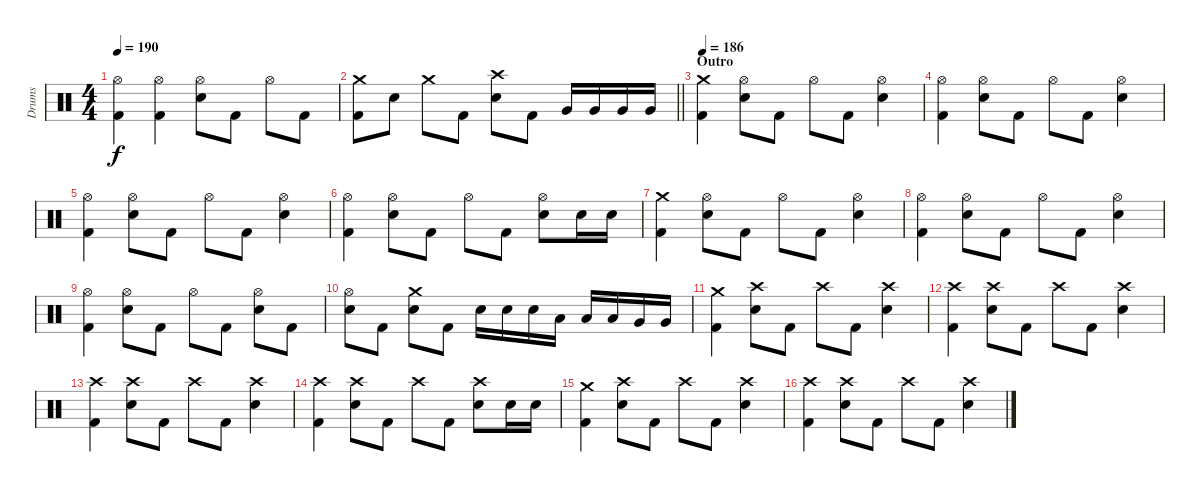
\track ("Drums" "Drums") {instrument percussion}
\staff {score}
\articulation defaults
\ts (4 4)
\tempo 190
\clef neutral
\ks c
("Hi-Hat (open)" "Kick (hit) 2").4{dy f} ("Hi-Hat (open)" "Kick (hit) 2").4 ("Hi-Hat (open)" "Electric Snare (hit)").8 "Kick (hit) 2".8 "Hi-Hat (open)".8 "Kick (hit) 2".8 |
\barLineRight lightlight
("Crash medium (hit)" "Kick (hit) 2").8 "Electric Snare (hit)".8 "Crash medium (hit)".8 "Kick (hit) 2".8 ("Crash high (hit)" "Electric Snare (hit)").8 "Kick (hit) 2".8 "Very Low Tom (hit)".16 "Very Low Tom (hit)".16 "Very Low Tom (hit)".16 "Very Low Tom (hit)".16 |
\section ("" "Outro")
\tempo 186
("Crash medium (hit)" "Kick (hit) 2").4 ("Hi-Hat (open)" "Electric Snare (hit)").8 "Kick (hit) 2".8 "Hi-Hat (open)".8 "Kick (hit) 2".8 ("Hi-Hat (open)" "Electric Snare (hit)").4 |
("Hi-Hat (open)" "Kick (hit) 2").4 ("Hi-Hat (open)" "Electric Snare (hit)").8 "Kick (hit) 2".8 "Hi-Hat (open)".8 "Kick (hit) 2".8 ("Hi-Hat (open)" "Electric Snare (hit)").4 |
("Hi-Hat (open)" "Kick (hit) 2").4 ("Hi-Hat (open)" "Electric Snare (hit)").8 "Kick (hit) 2".8 "Hi-Hat (open)".8 "Kick (hit) 2".8 ("Hi-Hat (open)" "Electric Snare (hit)").4 |
("Hi-Hat (open)" "Kick (hit) 2").4 ("Hi-Hat (open)" "Electric Snare (hit)").8 "Kick (hit) 2".8 "Hi-Hat (open)".8 "Kick (hit) 2".8 ("Hi-Hat (open)" "Electric Snare (hit)").8 "Electric Snare (hit)".16 "Electric Snare (hit)".16 |
("Crash medium (hit)" "Kick (hit) 2").4 ("Hi-Hat (open)" "Electric Snare (hit)").8 "Kick (hit) 2".8 "Hi-Hat (open)".8 "Kick (hit) 2".8 ("Hi-Hat (open)" "Electric Snare (hit)").4 |
("Hi-Hat (open)" "Kick (hit) 2").4 ("Hi-Hat (open)" "Electric Snare (hit)").8 "Kick (hit) 2".8 "Hi-Hat (open)".8 "Kick (hit) 2".8 ("Hi-Hat (open)" "Electric Snare (hit)").4 |
("Hi-Hat (open)" "Kick (hit) 2").4 ("Hi-Hat (open)" "Electric Snare (hit)").8 "Kick (hit) 2".8 "Hi-Hat (open)".8 "Kick (hit) 2".8 ("Hi-Hat (open)" "Electric Snare (hit)").8 "Kick (hit) 2".8 |
("Hi-Hat (open)" "Electric Snare (hit)").8 "Kick (hit) 2".8 ("Crash medium (hit)" "Electric Snare (hit)").8 "Kick (hit) 2".8 "Electric Snare (hit)".16 "Electric Snare (hit)".16 "Electric Snare (hit)".16 "Low Tom (hit)".16 "Low Tom (hit)".16 "Low Tom (hit)".16 "Very Low Tom (hit)".16 "Very Low Tom (hit)".16 |
("Crash medium (hit)" "Kick (hit) 2").4 ("Crash high (hit)" "Electric Snare (hit)").8 "Kick (hit) 2".8 "Crash high (hit)".8 "Kick (hit) 2".8 ("Crash high (hit)" "Electric Snare (hit)").4 |
("Crash high (hit)" "Kick (hit) 2").4 ("Crash high (hit)" "Electric Snare (hit)").8 "Kick (hit) 2".8 "Crash high (hit)".8 "Kick (hit) 2".8 ("Crash high (hit)" "Electric Snare (hit)").4 |
("Crash high (hit)" "Kick (hit) 2").4 ("Crash high (hit)" "Electric Snare (hit)").8 "Kick (hit) 2".8 "Crash high (hit)".8 "Kick (hit) 2".8 ("Crash high (hit)" "Electric Snare (hit)").4 |
("Crash high (hit)" "Kick (hit) 2").4 ("Crash high (hit)" "Electric Snare (hit)").8 "Kick (hit) 2".8 "Crash high (hit)".8 "Kick (hit) 2".8 ("Crash high (hit)" "Electric Snare (hit)").8 "Electric Snare (hit)".16 "Electric Snare (hit)".16 |
("Crash medium (hit)" "Kick (hit) 2").4 ("Crash high (hit)" "Electric Snare (hit)").8 "Kick (hit) 2".8 "Crash high (hit)".8 "Kick (hit) 2".8 ("Crash high (hit)" "Electric Snare (hit)").4 |
("Crash high (hit)" "Kick (hit) 2").4 ("Crash high (hit)" "Electric Snare (hit)").8 "Kick (hit) 2".8 "Crash high (hit)".8 "Kick (hit) 2".8 ("Crash high (hit)" "Electric Snare (hit)").4
